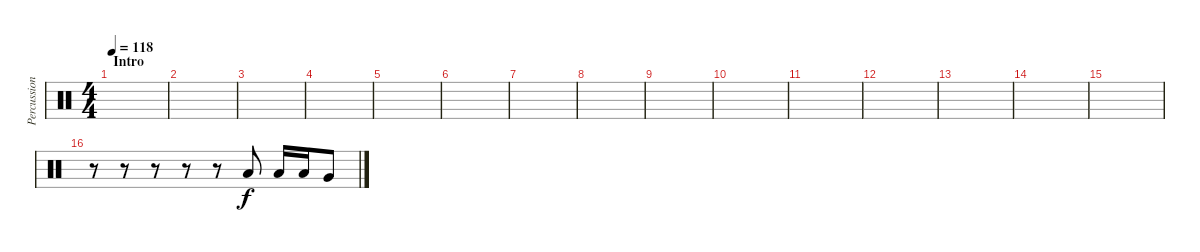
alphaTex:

\track ("Percussion" "Percussion") {instrument percussion}
\staff {score}
\articulation defaults
\ts (4 4)
\section ("" "Intro")
\tempo 118
\clef neutral
\ks c
|
|
|
|
|
|
|
|
|
|
|
|
|
|
|
r.8 r.8 r.8 r.8 r.8 "Low Tom (hit)".8 "Low Tom (hit)".16 "Low Tom (hit)".16 "Very Low Tom (hit)".8
